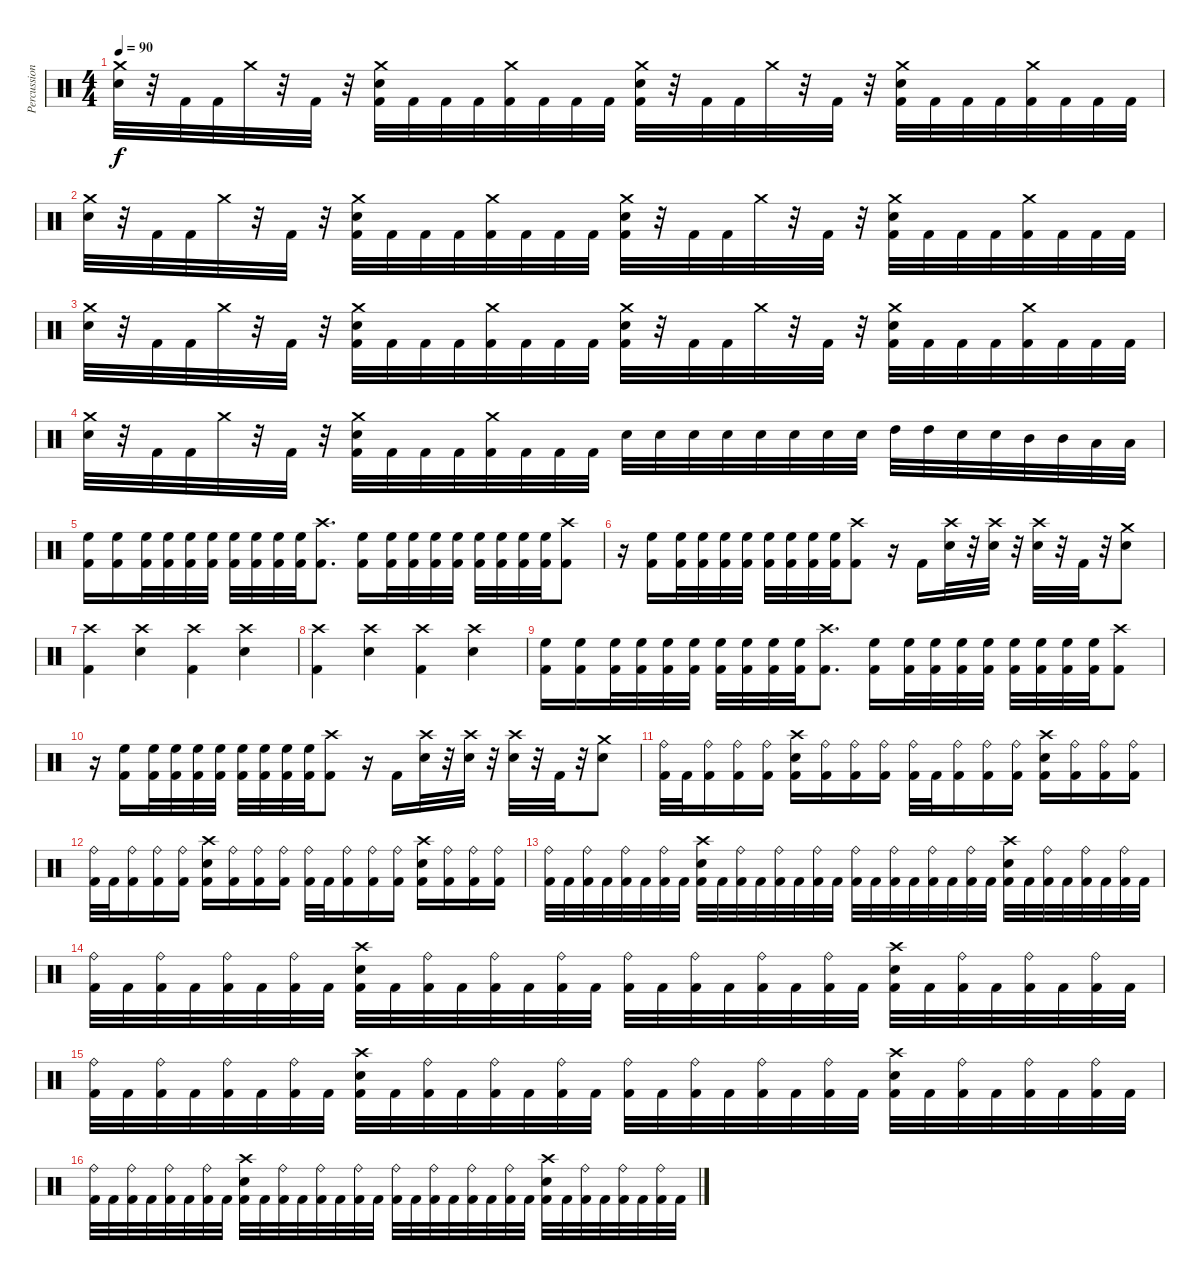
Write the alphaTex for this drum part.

\track ("Percussion" "Percussion") {instrument percussion}
\staff {score}
\articulation defaults
\ts (4 4)
\tempo 90
\clef neutral
\ks c
("Crash medium (hit)" "Electric Snare (hit)").32{dy f} r.32 "Kick (hit) 2".32 "Kick (hit) 2".32 "Crash medium (hit)".32 r.32 "Kick (hit) 2".32 r.32 ("Crash medium (hit)" "Electric Snare (hit)" "Kick (hit) 2").32 "Kick (hit) 2".32 "Kick (hit) 2".32 "Kick (hit) 2".32 ("Crash medium (hit)" "Kick (hit) 2").32 "Kick (hit) 2".32 "Kick (hit) 2".32 "Kick (hit) 2".32 ("Crash medium (hit)" "Electric Snare (hit)" "Kick (hit) 2").32 r.32 "Kick (hit) 2".32 "Kick (hit) 2".32 "Crash medium (hit)".32 r.32 "Kick (hit) 2".32 r.32 ("Crash medium (hit)" "Electric Snare (hit)" "Kick (hit) 2").32 "Kick (hit) 2".32 "Kick (hit) 2".32 "Kick (hit) 2".32 ("Crash medium (hit)" "Kick (hit) 2").32 "Kick (hit) 2".32 "Kick (hit) 2".32 "Kick (hit) 2".32 |
("Crash medium (hit)" "Electric Snare (hit)").32 r.32 "Kick (hit) 2".32 "Kick (hit) 2".32 "Crash medium (hit)".32 r.32 "Kick (hit) 2".32 r.32 ("Crash medium (hit)" "Electric Snare (hit)" "Kick (hit) 2").32 "Kick (hit) 2".32 "Kick (hit) 2".32 "Kick (hit) 2".32 ("Crash medium (hit)" "Kick (hit) 2").32 "Kick (hit) 2".32 "Kick (hit) 2".32 "Kick (hit) 2".32 ("Crash medium (hit)" "Electric Snare (hit)" "Kick (hit) 2").32 r.32 "Kick (hit) 2".32 "Kick (hit) 2".32 "Crash medium (hit)".32 r.32 "Kick (hit) 2".32 r.32 ("Crash medium (hit)" "Electric Snare (hit)" "Kick (hit) 2").32 "Kick (hit) 2".32 "Kick (hit) 2".32 "Kick (hit) 2".32 ("Crash medium (hit)" "Kick (hit) 2").32 "Kick (hit) 2".32 "Kick (hit) 2".32 "Kick (hit) 2".32 |
("Crash medium (hit)" "Electric Snare (hit)").32 r.32 "Kick (hit) 2".32 "Kick (hit) 2".32 "Crash medium (hit)".32 r.32 "Kick (hit) 2".32 r.32 ("Crash medium (hit)" "Electric Snare (hit)" "Kick (hit) 2").32 "Kick (hit) 2".32 "Kick (hit) 2".32 "Kick (hit) 2".32 ("Crash medium (hit)" "Kick (hit) 2").32 "Kick (hit) 2".32 "Kick (hit) 2".32 "Kick (hit) 2".32 ("Crash medium (hit)" "Electric Snare (hit)" "Kick (hit) 2").32 r.32 "Kick (hit) 2".32 "Kick (hit) 2".32 "Crash medium (hit)".32 r.32 "Kick (hit) 2".32 r.32 ("Crash medium (hit)" "Electric Snare (hit)" "Kick (hit) 2").32 "Kick (hit) 2".32 "Kick (hit) 2".32 "Kick (hit) 2".32 ("Crash medium (hit)" "Kick (hit) 2").32 "Kick (hit) 2".32 "Kick (hit) 2".32 "Kick (hit) 2".32 |
("Crash medium (hit)" "Electric Snare (hit)").32 r.32 "Kick (hit) 2".32 "Kick (hit) 2".32 "Crash medium (hit)".32 r.32 "Kick (hit) 2".32 r.32 ("Crash medium (hit)" "Electric Snare (hit)" "Kick (hit) 2").32 "Kick (hit) 2".32 "Kick (hit) 2".32 "Kick (hit) 2".32 ("Crash medium (hit)" "Kick (hit) 2").32 "Kick (hit) 2".32 "Kick (hit) 2".32 "Kick (hit) 2".32 "Electric Snare (hit)".32 "Electric Snare (hit)".32 "Electric Snare (hit)".32 "Electric Snare (hit)".32 "Electric Snare (hit)".32 "Electric Snare (hit)".32 "Electric Snare (hit)".32 "Electric Snare (hit)".32 "High Tom (hit)".32 "High Tom (hit)".32 "Electric Snare (hit)".32 "Electric Snare (hit)".32 "Mid Tom (hit)".32 "Mid Tom (hit)".32 "Low Tom (hit)".32 "Low Tom (hit)".32 |
("High Floor Tom (hit)" "Kick (hit) 2").16 ("High Floor Tom (hit)" "Kick (hit) 2").16 ("High Floor Tom (hit)" "Kick (hit) 2").32 ("High Floor Tom (hit)" "Kick (hit) 2").32 ("High Floor Tom (hit)" "Kick (hit) 2").32 ("High Floor Tom (hit)" "Kick (hit) 2").32 ("High Floor Tom (hit)" "Kick (hit) 2").32 ("High Floor Tom (hit)" "Kick (hit) 2").32 ("High Floor Tom (hit)" "Kick (hit) 2").32 ("High Floor Tom (hit)" "Kick (hit) 2").32 ("Crash high (hit)" "Kick (hit) 2").8{d} ("High Floor Tom (hit)" "Kick (hit) 2").16 ("High Floor Tom (hit)" "Kick (hit) 2").32 ("High Floor Tom (hit)" "Kick (hit) 2").32 ("High Floor Tom (hit)" "Kick (hit) 2").32 ("High Floor Tom (hit)" "Kick (hit) 2").32 ("High Floor Tom (hit)" "Kick (hit) 2").32 ("High Floor Tom (hit)" "Kick (hit) 2").32 ("High Floor Tom (hit)" "Kick (hit) 2").32 ("High Floor Tom (hit)" "Kick (hit) 2").32 ("Crash high (hit)" "Kick (hit) 2").8 |
r.16 ("High Floor Tom (hit)" "Kick (hit) 2").16 ("High Floor Tom (hit)" "Kick (hit) 2").32 ("High Floor Tom (hit)" "Kick (hit) 2").32 ("High Floor Tom (hit)" "Kick (hit) 2").32 ("High Floor Tom (hit)" "Kick (hit) 2").32 ("High Floor Tom (hit)" "Kick (hit) 2").32 ("High Floor Tom (hit)" "Kick (hit) 2").32 ("High Floor Tom (hit)" "Kick (hit) 2").32 ("High Floor Tom (hit)" "Kick (hit) 2").32 ("Crash high (hit)" "Kick (hit) 2").8 r.16 "Kick (hit) 2".16 ("Crash high (hit)" "Electric Snare (hit)").32 r.32 ("Crash high (hit)" "Electric Snare (hit)").32 r.32 ("Crash high (hit)" "Electric Snare (hit)").32 r.32 "Kick (hit) 2".32 r.32 ("Crash medium (hit)" "Electric Snare (hit)").8 |
("Crash high (hit)" "Kick (hit) 2").4 ("Crash high (hit)" "Electric Snare (hit)").4 ("Crash high (hit)" "Kick (hit) 2").4 ("Crash high (hit)" "Electric Snare (hit)").4 |
("Crash high (hit)" "Kick (hit) 2").4 ("Crash high (hit)" "Electric Snare (hit)").4 ("Crash high (hit)" "Kick (hit) 2").4 ("Crash high (hit)" "Electric Snare (hit)").4 |
("High Floor Tom (hit)" "Kick (hit) 2").16 ("High Floor Tom (hit)" "Kick (hit) 2").16 ("High Floor Tom (hit)" "Kick (hit) 2").32 ("High Floor Tom (hit)" "Kick (hit) 2").32 ("High Floor Tom (hit)" "Kick (hit) 2").32 ("High Floor Tom (hit)" "Kick (hit) 2").32 ("High Floor Tom (hit)" "Kick (hit) 2").32 ("High Floor Tom (hit)" "Kick (hit) 2").32 ("High Floor Tom (hit)" "Kick (hit) 2").32 ("High Floor Tom (hit)" "Kick (hit) 2").32 ("Crash high (hit)" "Kick (hit) 2").8{d} ("High Floor Tom (hit)" "Kick (hit) 2").16 ("High Floor Tom (hit)" "Kick (hit) 2").32 ("High Floor Tom (hit)" "Kick (hit) 2").32 ("High Floor Tom (hit)" "Kick (hit) 2").32 ("High Floor Tom (hit)" "Kick (hit) 2").32 ("High Floor Tom (hit)" "Kick (hit) 2").32 ("High Floor Tom (hit)" "Kick (hit) 2").32 ("High Floor Tom (hit)" "Kick (hit) 2").32 ("High Floor Tom (hit)" "Kick (hit) 2").32 ("Crash high (hit)" "Kick (hit) 2").8 |
r.16 ("High Floor Tom (hit)" "Kick (hit) 2").16 ("High Floor Tom (hit)" "Kick (hit) 2").32 ("High Floor Tom (hit)" "Kick (hit) 2").32 ("High Floor Tom (hit)" "Kick (hit) 2").32 ("High Floor Tom (hit)" "Kick (hit) 2").32 ("High Floor Tom (hit)" "Kick (hit) 2").32 ("High Floor Tom (hit)" "Kick (hit) 2").32 ("High Floor Tom (hit)" "Kick (hit) 2").32 ("High Floor Tom (hit)" "Kick (hit) 2").32 ("Crash high (hit)" "Kick (hit) 2").8 r.16 "Kick (hit) 2".16 ("Crash high (hit)" "Electric Snare (hit)").32 r.32 ("Crash high (hit)" "Electric Snare (hit)").32 r.32 ("Crash high (hit)" "Electric Snare (hit)").32 r.32 "Kick (hit) 2".32 r.32 ("Crash medium (hit)" "Electric Snare (hit)").8 |
("Ride (bell)" "Kick (hit) 2").32 "Kick (hit) 2".32 ("Ride (bell)" "Kick (hit) 2").16 ("Ride (bell)" "Kick (hit) 2").16 ("Ride (bell)" "Kick (hit) 2").16 ("Crash high (hit)" "Electric Snare (hit)" "Kick (hit) 2").16 ("Ride (bell)" "Kick (hit) 2").16 ("Ride (bell)" "Kick (hit) 2").16 ("Ride (bell)" "Kick (hit) 2").16 ("Ride (bell)" "Kick (hit) 2").32 "Kick (hit) 2".32 ("Ride (bell)" "Kick (hit) 2").16 ("Ride (bell)" "Kick (hit) 2").16 ("Ride (bell)" "Kick (hit) 2").16 ("Crash high (hit)" "Electric Snare (hit)" "Kick (hit) 2").16 ("Ride (bell)" "Kick (hit) 2").16 ("Ride (bell)" "Kick (hit) 2").16 ("Ride (bell)" "Kick (hit) 2").16 |
("Ride (bell)" "Kick (hit) 2").32 "Kick (hit) 2".32 ("Ride (bell)" "Kick (hit) 2").16 ("Ride (bell)" "Kick (hit) 2").16 ("Ride (bell)" "Kick (hit) 2").16 ("Crash high (hit)" "Electric Snare (hit)" "Kick (hit) 2").16 ("Ride (bell)" "Kick (hit) 2").16 ("Ride (bell)" "Kick (hit) 2").16 ("Ride (bell)" "Kick (hit) 2").16 ("Ride (bell)" "Kick (hit) 2").32 "Kick (hit) 2".32 ("Ride (bell)" "Kick (hit) 2").16 ("Ride (bell)" "Kick (hit) 2").16 ("Ride (bell)" "Kick (hit) 2").16 ("Crash high (hit)" "Electric Snare (hit)" "Kick (hit) 2").16 ("Ride (bell)" "Kick (hit) 2").16 ("Ride (bell)" "Kick (hit) 2").16 ("Ride (bell)" "Kick (hit) 2").16 |
("Ride (bell)" "Kick (hit) 2").32 "Kick (hit) 2".32 ("Ride (bell)" "Kick (hit) 2").32 "Kick (hit) 2".32 ("Ride (bell)" "Kick (hit) 2").32 "Kick (hit) 2".32 ("Ride (bell)" "Kick (hit) 2").32 "Kick (hit) 2".32 ("Crash high (hit)" "Electric Snare (hit)" "Kick (hit) 2").32 "Kick (hit) 2".32 ("Ride (bell)" "Kick (hit) 2").32 "Kick (hit) 2".32 ("Ride (bell)" "Kick (hit) 2").32 "Kick (hit) 2".32 ("Ride (bell)" "Kick (hit) 2").32 "Kick (hit) 2".32 ("Ride (bell)" "Kick (hit) 2").32 "Kick (hit) 2".32 ("Ride (bell)" "Kick (hit) 2").32 "Kick (hit) 2".32 ("Ride (bell)" "Kick (hit) 2").32 "Kick (hit) 2".32 ("Ride (bell)" "Kick (hit) 2").32 "Kick (hit) 2".32 ("Crash high (hit)" "Electric Snare (hit)" "Kick (hit) 2").32 "Kick (hit) 2".32 ("Ride (bell)" "Kick (hit) 2").32 "Kick (hit) 2".32 ("Ride (bell)" "Kick (hit) 2").32 "Kick (hit) 2".32 ("Ride (bell)" "Kick (hit) 2").32 "Kick (hit) 2".32 |
("Ride (bell)" "Kick (hit) 2").32 "Kick (hit) 2".32 ("Ride (bell)" "Kick (hit) 2").32 "Kick (hit) 2".32 ("Ride (bell)" "Kick (hit) 2").32 "Kick (hit) 2".32 ("Ride (bell)" "Kick (hit) 2").32 "Kick (hit) 2".32 ("Crash high (hit)" "Electric Snare (hit)" "Kick (hit) 2").32 "Kick (hit) 2".32 ("Ride (bell)" "Kick (hit) 2").32 "Kick (hit) 2".32 ("Ride (bell)" "Kick (hit) 2").32 "Kick (hit) 2".32 ("Ride (bell)" "Kick (hit) 2").32 "Kick (hit) 2".32 ("Ride (bell)" "Kick (hit) 2").32 "Kick (hit) 2".32 ("Ride (bell)" "Kick (hit) 2").32 "Kick (hit) 2".32 ("Ride (bell)" "Kick (hit) 2").32 "Kick (hit) 2".32 ("Ride (bell)" "Kick (hit) 2").32 "Kick (hit) 2".32 ("Crash high (hit)" "Electric Snare (hit)" "Kick (hit) 2").32 "Kick (hit) 2".32 ("Ride (bell)" "Kick (hit) 2").32 "Kick (hit) 2".32 ("Ride (bell)" "Kick (hit) 2").32 "Kick (hit) 2".32 ("Ride (bell)" "Kick (hit) 2").32 "Kick (hit) 2".32 |
("Ride (bell)" "Kick (hit) 2").32 "Kick (hit) 2".32 ("Ride (bell)" "Kick (hit) 2").32 "Kick (hit) 2".32 ("Ride (bell)" "Kick (hit) 2").32 "Kick (hit) 2".32 ("Ride (bell)" "Kick (hit) 2").32 "Kick (hit) 2".32 ("Crash high (hit)" "Electric Snare (hit)" "Kick (hit) 2").32 "Kick (hit) 2".32 ("Ride (bell)" "Kick (hit) 2").32 "Kick (hit) 2".32 ("Ride (bell)" "Kick (hit) 2").32 "Kick (hit) 2".32 ("Ride (bell)" "Kick (hit) 2").32 "Kick (hit) 2".32 ("Ride (bell)" "Kick (hit) 2").32 "Kick (hit) 2".32 ("Ride (bell)" "Kick (hit) 2").32 "Kick (hit) 2".32 ("Ride (bell)" "Kick (hit) 2").32 "Kick (hit) 2".32 ("Ride (bell)" "Kick (hit) 2").32 "Kick (hit) 2".32 ("Crash high (hit)" "Electric Snare (hit)" "Kick (hit) 2").32 "Kick (hit) 2".32 ("Ride (bell)" "Kick (hit) 2").32 "Kick (hit) 2".32 ("Ride (bell)" "Kick (hit) 2").32 "Kick (hit) 2".32 ("Ride (bell)" "Kick (hit) 2").32 "Kick (hit) 2".32 |
("Ride (bell)" "Kick (hit) 2").32 "Kick (hit) 2".32 ("Ride (bell)" "Kick (hit) 2").32 "Kick (hit) 2".32 ("Ride (bell)" "Kick (hit) 2").32 "Kick (hit) 2".32 ("Ride (bell)" "Kick (hit) 2").32 "Kick (hit) 2".32 ("Crash high (hit)" "Electric Snare (hit)" "Kick (hit) 2").32 "Kick (hit) 2".32 ("Ride (bell)" "Kick (hit) 2").32 "Kick (hit) 2".32 ("Ride (bell)" "Kick (hit) 2").32 "Kick (hit) 2".32 ("Ride (bell)" "Kick (hit) 2").32 "Kick (hit) 2".32 ("Ride (bell)" "Kick (hit) 2").32 "Kick (hit) 2".32 ("Ride (bell)" "Kick (hit) 2").32 "Kick (hit) 2".32 ("Ride (bell)" "Kick (hit) 2").32 "Kick (hit) 2".32 ("Ride (bell)" "Kick (hit) 2").32 "Kick (hit) 2".32 ("Crash high (hit)" "Electric Snare (hit)" "Kick (hit) 2").32 "Kick (hit) 2".32 ("Ride (bell)" "Kick (hit) 2").32 "Kick (hit) 2".32 ("Ride (bell)" "Kick (hit) 2").32 "Kick (hit) 2".32 ("Ride (bell)" "Kick (hit) 2").32 "Kick (hit) 2".32
